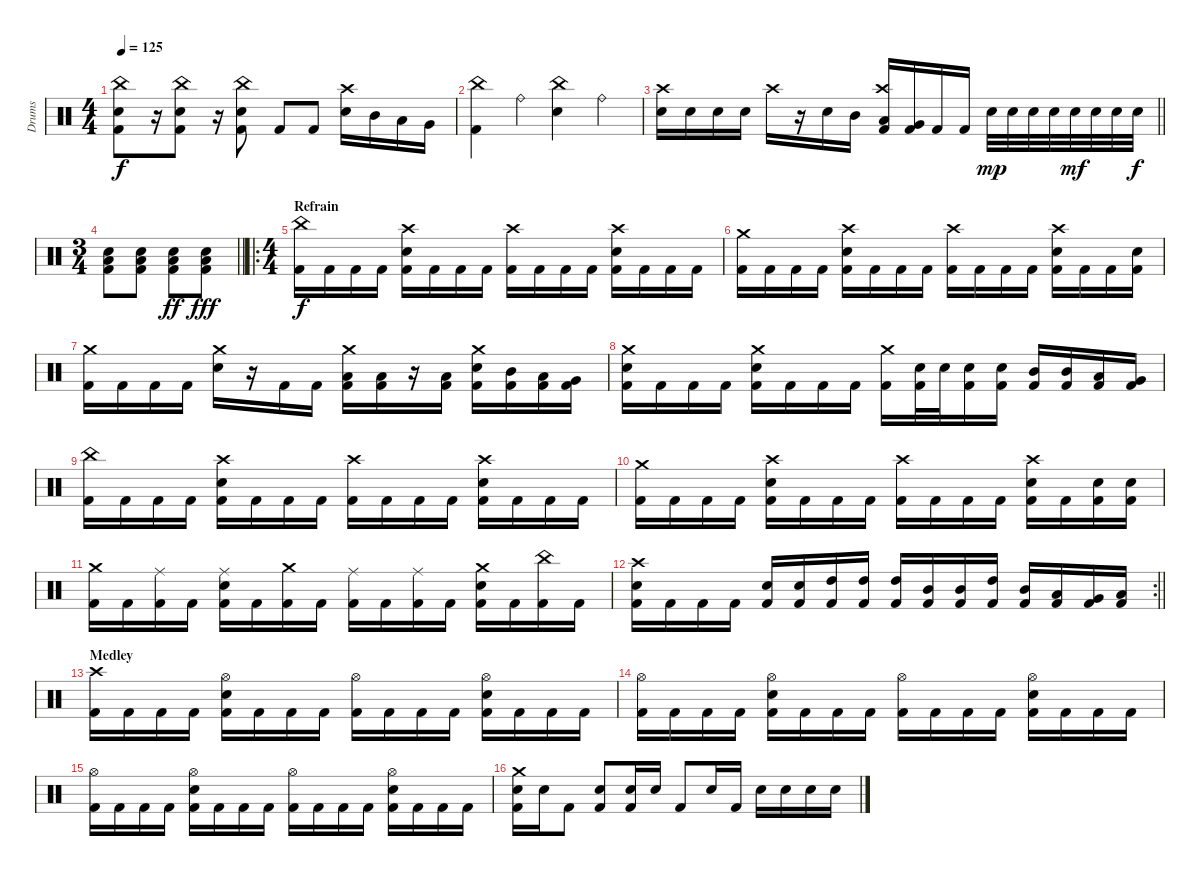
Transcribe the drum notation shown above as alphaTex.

\track ("Drums" "Drums") {instrument percussion}
\staff {score}
\articulation defaults
\ts (4 4)
\tempo 125
\clef neutral
\ks c
("China (hit)" "Electric Snare (hit)" "Kick (hit) 2").8{dy f} r.16 ("China (hit)" "Electric Snare (hit)" "Kick (hit) 2").8 r.16 ("China (hit)" "Electric Snare (hit)" "Kick (hit) 2").8 "Kick (hit) 2".8 "Kick (hit) 2".8 ("Crash high (hit)" "Electric Snare (hit)").16 "Mid Tom (hit)".16 "Low Tom (hit)".16 "Very Low Tom (hit)".16 |
("China (hit)" "Kick (hit) 2").4 "Ride (bell)".4 ("China (hit)" "Electric Snare (hit)").4 "Ride (bell)".4 |
\barLineRight lightlight
("Crash high (hit)" "Electric Snare (hit)").16 "Electric Snare (hit)".16 "Electric Snare (hit)".16 "Electric Snare (hit)".16 "Crash high (hit)".16 r.16 "Electric Snare (hit)".16 "Mid Tom (hit)".16 ("Crash high (hit)" "Low Tom (hit)" "Kick (hit) 2").16 ("Very Low Tom (hit)" "Kick (hit) 2").16 "Kick (hit) 2".16 "Kick (hit) 2".16 "Electric Snare (hit)".32{dy mp} "Electric Snare (hit)".32 "Electric Snare (hit)".32 "Electric Snare (hit)".32 "Electric Snare (hit)".32{dy mf} "Electric Snare (hit)".32 "Electric Snare (hit)".32 "Electric Snare (hit)".32{dy f} |
\ts (3 4)
\barLineRight lightlight
("Electric Snare (hit)" "Low Floor Tom (hit)" "Kick (hit) 2").8 ("Electric Snare (hit)" "Low Floor Tom (hit)" "Kick (hit) 2").8 ("Electric Snare (hit)" "Low Floor Tom (hit)" "Kick (hit) 2").8{dy ff} ("Electric Snare (hit)" "Low Floor Tom (hit)" "Kick (hit) 2").8{dy fff} |
\ro
\ts (4 4)
\section ("" "Refrain")
("China (hit)" "Kick (hit) 2").16{dy f} "Kick (hit) 2".16 "Kick (hit) 2".16 "Kick (hit) 2".16 ("Crash high (hit)" "Electric Snare (hit)" "Kick (hit) 2").16 "Kick (hit) 2".16 "Kick (hit) 2".16 "Kick (hit) 2".16 ("Crash high (hit)" "Kick (hit) 2").16 "Kick (hit) 2".16 "Kick (hit) 2".16 "Kick (hit) 2".16 ("Crash high (hit)" "Electric Snare (hit)" "Kick (hit) 2").16 "Kick (hit) 2".16 "Kick (hit) 2".16 "Kick (hit) 2".16 |
("Crash medium (hit)" "Kick (hit) 2").16 "Kick (hit) 2".16 "Kick (hit) 2".16 "Kick (hit) 2".16 ("Crash high (hit)" "Electric Snare (hit)" "Kick (hit) 2").16 "Kick (hit) 2".16 "Kick (hit) 2".16 "Kick (hit) 2".16 ("Crash high (hit)" "Kick (hit) 2").16 "Kick (hit) 2".16 "Kick (hit) 2".16 "Kick (hit) 2".16 ("Crash high (hit)" "Electric Snare (hit)" "Kick (hit) 2").16 "Kick (hit) 2".16 "Kick (hit) 2".16 ("Electric Snare (hit)" "Kick (hit) 2").16 |
("Crash medium (hit)" "Kick (hit) 2").16 "Kick (hit) 2".16 "Kick (hit) 2".16 "Kick (hit) 2".16 ("Crash medium (hit)" "Electric Snare (hit)").16 r.16 "Kick (hit) 2".16 "Kick (hit) 2".16 ("Crash medium (hit)" "Low Floor Tom (hit)" "Kick (hit) 2").16 ("Low Floor Tom (hit)" "Kick (hit) 2").16 r.16 ("Low Floor Tom (hit)" "Kick (hit) 2").16 ("Crash medium (hit)" "Electric Snare (hit)" "Kick (hit) 2").16 ("Mid Tom (hit)" "Kick (hit) 2").16 ("Low Tom (hit)" "Kick (hit) 2").16 ("Very Low Tom (hit)" "Kick (hit) 2").16 |
("Crash medium (hit)" "Electric Snare (hit)" "Kick (hit) 2").16 "Kick (hit) 2".16 "Kick (hit) 2".16 "Kick (hit) 2".16 ("Crash medium (hit)" "Electric Snare (hit)" "Kick (hit) 2").16 "Kick (hit) 2".16 "Kick (hit) 2".16 "Kick (hit) 2".16 ("Crash medium (hit)" "Kick (hit) 2").16 ("Electric Snare (hit)" "Kick (hit) 2").32 "Electric Snare (hit)".32 ("Electric Snare (hit)" "Kick (hit) 2").16 ("Electric Snare (hit)" "Kick (hit) 2").16 ("Mid Tom (hit)" "Kick (hit) 2").16 ("Mid Tom (hit)" "Kick (hit) 2").16 ("Low Tom (hit)" "Kick (hit) 2").16 ("Very Low Tom (hit)" "Kick (hit) 2").16 |
("China (hit)" "Kick (hit) 2").16 "Kick (hit) 2".16 "Kick (hit) 2".16 "Kick (hit) 2".16 ("Crash high (hit)" "Electric Snare (hit)" "Kick (hit) 2").16 "Kick (hit) 2".16 "Kick (hit) 2".16 "Kick (hit) 2".16 ("Crash high (hit)" "Kick (hit) 2").16 "Kick (hit) 2".16 "Kick (hit) 2".16 "Kick (hit) 2".16 ("Crash high (hit)" "Electric Snare (hit)" "Kick (hit) 2").16 "Kick (hit) 2".16 "Kick (hit) 2".16 "Kick (hit) 2".16 |
("Crash medium (hit)" "Kick (hit) 2").16 "Kick (hit) 2".16 "Kick (hit) 2".16 "Kick (hit) 2".16 ("Crash high (hit)" "Electric Snare (hit)" "Kick (hit) 2").16 "Kick (hit) 2".16 "Kick (hit) 2".16 "Kick (hit) 2".16 ("Crash high (hit)" "Kick (hit) 2").16 "Kick (hit) 2".16 "Kick (hit) 2".16 "Kick (hit) 2".16 ("Crash high (hit)" "Electric Snare (hit)" "Kick (hit) 2").16 "Kick (hit) 2".16 ("Electric Snare (hit)" "Kick (hit) 2").16 ("Electric Snare (hit)" "Kick (hit) 2").16 |
("Crash medium (hit)" "Kick (hit) 2").16 "Kick (hit) 2".16 ("Ride (middle)" "Kick (hit) 2").16 "Kick (hit) 2".16 ("Ride (middle)" "Electric Snare (hit)" "Kick (hit) 2").16 "Kick (hit) 2".16 ("Crash medium (hit)" "Kick (hit) 2").16 "Kick (hit) 2".16 ("Ride (middle)" "Kick (hit) 2").16 "Kick (hit) 2".16 ("Ride (middle)" "Kick (hit) 2").16 "Kick (hit) 2".16 ("Crash medium (hit)" "Electric Snare (hit)" "Kick (hit) 2").16 "Kick (hit) 2".16 ("China (hit)" "Kick (hit) 2").16 "Kick (hit) 2".16 |
\rc 2
\barLineRight lightlight
("Crash high (hit)" "Electric Snare (hit)" "Kick (hit) 2").16 "Kick (hit) 2".16 "Kick (hit) 2".16 "Kick (hit) 2".16 ("Electric Snare (hit)" "Kick (hit) 2").16 ("Electric Snare (hit)" "Kick (hit) 2").16 ("High Tom (hit)" "Kick (hit) 2").16 ("High Tom (hit)" "Kick (hit) 2").16 ("High Tom (hit)" "Kick (hit) 2").16 ("Mid Tom (hit)" "Kick (hit) 2").16 ("Mid Tom (hit)" "Kick (hit) 2").16 ("High Tom (hit)" "Kick (hit) 2").16 ("Mid Tom (hit)" "Kick (hit) 2").16 ("Low Tom (hit)" "Kick (hit) 2").16 ("Very Low Tom (hit)" "Kick (hit) 2").16 ("Low Floor Tom (hit)" "Kick (hit) 2").16 |
\section ("" "Medley")
("Crash high (hit)" "Kick (hit) 2").16 "Kick (hit) 2".16 "Kick (hit) 2".16 "Kick (hit) 2".16 ("Hi-Hat (open)" "Electric Snare (hit)" "Kick (hit) 2").16 "Kick (hit) 2".16 "Kick (hit) 2".16 "Kick (hit) 2".16 ("Hi-Hat (open)" "Kick (hit) 2").16 "Kick (hit) 2".16 "Kick (hit) 2".16 "Kick (hit) 2".16 ("Hi-Hat (open)" "Electric Snare (hit)" "Kick (hit) 2").16 "Kick (hit) 2".16 "Kick (hit) 2".16 "Kick (hit) 2".16 |
("Hi-Hat (open)" "Kick (hit) 2").16 "Kick (hit) 2".16 "Kick (hit) 2".16 "Kick (hit) 2".16 ("Hi-Hat (open)" "Electric Snare (hit)" "Kick (hit) 2").16 "Kick (hit) 2".16 "Kick (hit) 2".16 "Kick (hit) 2".16 ("Hi-Hat (open)" "Kick (hit) 2").16 "Kick (hit) 2".16 "Kick (hit) 2".16 "Kick (hit) 2".16 ("Hi-Hat (open)" "Electric Snare (hit)" "Kick (hit) 2").16 "Kick (hit) 2".16 "Kick (hit) 2".16 "Kick (hit) 2".16 |
("Hi-Hat (open)" "Kick (hit) 2").16 "Kick (hit) 2".16 "Kick (hit) 2".16 "Kick (hit) 2".16 ("Hi-Hat (open)" "Electric Snare (hit)" "Kick (hit) 2").16 "Kick (hit) 2".16 "Kick (hit) 2".16 "Kick (hit) 2".16 ("Hi-Hat (open)" "Kick (hit) 2").16 "Kick (hit) 2".16 "Kick (hit) 2".16 "Kick (hit) 2".16 ("Hi-Hat (open)" "Electric Snare (hit)" "Kick (hit) 2").16 "Kick (hit) 2".16 "Kick (hit) 2".16 "Kick (hit) 2".16 |
("Crash medium (hit)" "Electric Snare (hit)" "Kick (hit) 2").16 "Electric Snare (hit)".16 "Kick (hit) 2".8 ("Electric Snare (hit)" "Kick (hit) 2").8 ("Electric Snare (hit)" "Kick (hit) 2").16 "Electric Snare (hit)".16 "Kick (hit) 2".8 "Electric Snare (hit)".16 "Kick (hit) 2".16 "Electric Snare (hit)".16 "Electric Snare (hit)".16 "Electric Snare (hit)".16 "Electric Snare (hit)".16
